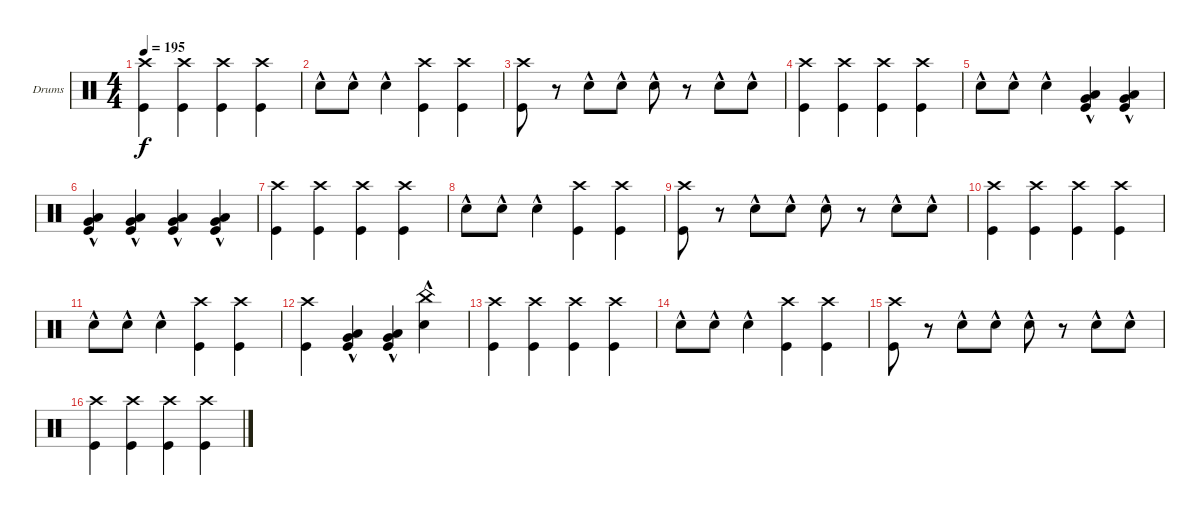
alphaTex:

\defaultSystemsLayout 4
\bracketExtendMode groupsimilarinstruments
\firstSystemTrackNameOrientation horizontal
\otherSystemsTrackNameOrientation horizontal
\track ("Drumkit" "Drums") {instrument percussion}
\staff {score}
\articulation defaults
\ts (4 4)
\tempo 195
\clef neutral
\ks c
("Kick (hit)" "Crash high (hit)").4{dy f} ("Kick (hit)" "Crash high (hit)").4 ("Kick (hit)" "Crash high (hit)").4 ("Kick (hit)" "Crash high (hit)").4 |
"Snare (hit) 2"{hac}.8 "Snare (hit) 2"{hac}.8 "Snare (hit) 2"{hac}.4 ("Kick (hit)" "Crash high (hit)").4 ("Kick (hit)" "Crash high (hit)").4 |
("Kick (hit)" "Crash high (hit)").8 r.8 "Snare (hit) 2"{hac}.8 "Snare (hit) 2"{hac}.8 "Snare (hit) 2"{hac}.8 r.8 "Snare (hit) 2"{hac}.8 "Snare (hit) 2"{hac}.8 |
("Kick (hit)" "Crash high (hit)").4 ("Kick (hit)" "Crash high (hit)").4 ("Kick (hit)" "Crash high (hit)").4 ("Kick (hit)" "Crash high (hit)").4 |
"Snare (hit) 2"{hac}.8 "Snare (hit) 2"{hac}.8 "Snare (hit) 2"{hac}.4 ("Low Tom (hit)"{hac} "Very Low Tom (hit)"{hac} "Kick (hit)").4 ("Low Tom (hit)"{hac} "Very Low Tom (hit)"{hac} "Kick (hit)").4 |
("Low Tom (hit)"{hac} "Very Low Tom (hit)"{hac} "Kick (hit)").4 ("Low Tom (hit)"{hac} "Very Low Tom (hit)"{hac} "Kick (hit)").4 ("Low Tom (hit)"{hac} "Very Low Tom (hit)"{hac} "Kick (hit)").4 ("Low Tom (hit)"{hac} "Very Low Tom (hit)"{hac} "Kick (hit)").4 |
("Kick (hit)" "Crash high (hit)").4 ("Kick (hit)" "Crash high (hit)").4 ("Kick (hit)" "Crash high (hit)").4 ("Kick (hit)" "Crash high (hit)").4 |
"Snare (hit) 2"{hac}.8 "Snare (hit) 2"{hac}.8 "Snare (hit) 2"{hac}.4 ("Kick (hit)" "Crash high (hit)").4 ("Kick (hit)" "Crash high (hit)").4 |
("Kick (hit)" "Crash high (hit)").8 r.8 "Snare (hit) 2"{hac}.8 "Snare (hit) 2"{hac}.8 "Snare (hit) 2"{hac}.8 r.8 "Snare (hit) 2"{hac}.8 "Snare (hit) 2"{hac}.8 |
("Kick (hit)" "Crash high (hit)").4 ("Kick (hit)" "Crash high (hit)").4 ("Kick (hit)" "Crash high (hit)").4 ("Kick (hit)" "Crash high (hit)").4 |
"Snare (hit) 2"{hac}.8 "Snare (hit) 2"{hac}.8 "Snare (hit) 2"{hac}.4 ("Kick (hit)" "Crash high (hit)").4 ("Kick (hit)" "Crash high (hit)").4 |
("Kick (hit)" "Crash high (hit)").4 ("Low Tom (hit)"{hac} "Very Low Tom (hit)"{hac} "Kick (hit)").4 ("Low Tom (hit)"{hac} "Very Low Tom (hit)"{hac} "Kick (hit)").4 ("Snare (hit) 2"{hac} "China (hit)"{hac}).4 |
("Kick (hit)" "Crash high (hit)").4 ("Kick (hit)" "Crash high (hit)").4 ("Kick (hit)" "Crash high (hit)").4 ("Kick (hit)" "Crash high (hit)").4 |
"Snare (hit) 2"{hac}.8 "Snare (hit) 2"{hac}.8 "Snare (hit) 2"{hac}.4 ("Kick (hit)" "Crash high (hit)").4 ("Kick (hit)" "Crash high (hit)").4 |
("Kick (hit)" "Crash high (hit)").8 r.8 "Snare (hit) 2"{hac}.8 "Snare (hit) 2"{hac}.8 "Snare (hit) 2"{hac}.8 r.8 "Snare (hit) 2"{hac}.8 "Snare (hit) 2"{hac}.8 |
("Kick (hit)" "Crash high (hit)").4 ("Kick (hit)" "Crash high (hit)").4 ("Kick (hit)" "Crash high (hit)").4 ("Kick (hit)" "Crash high (hit)").4
